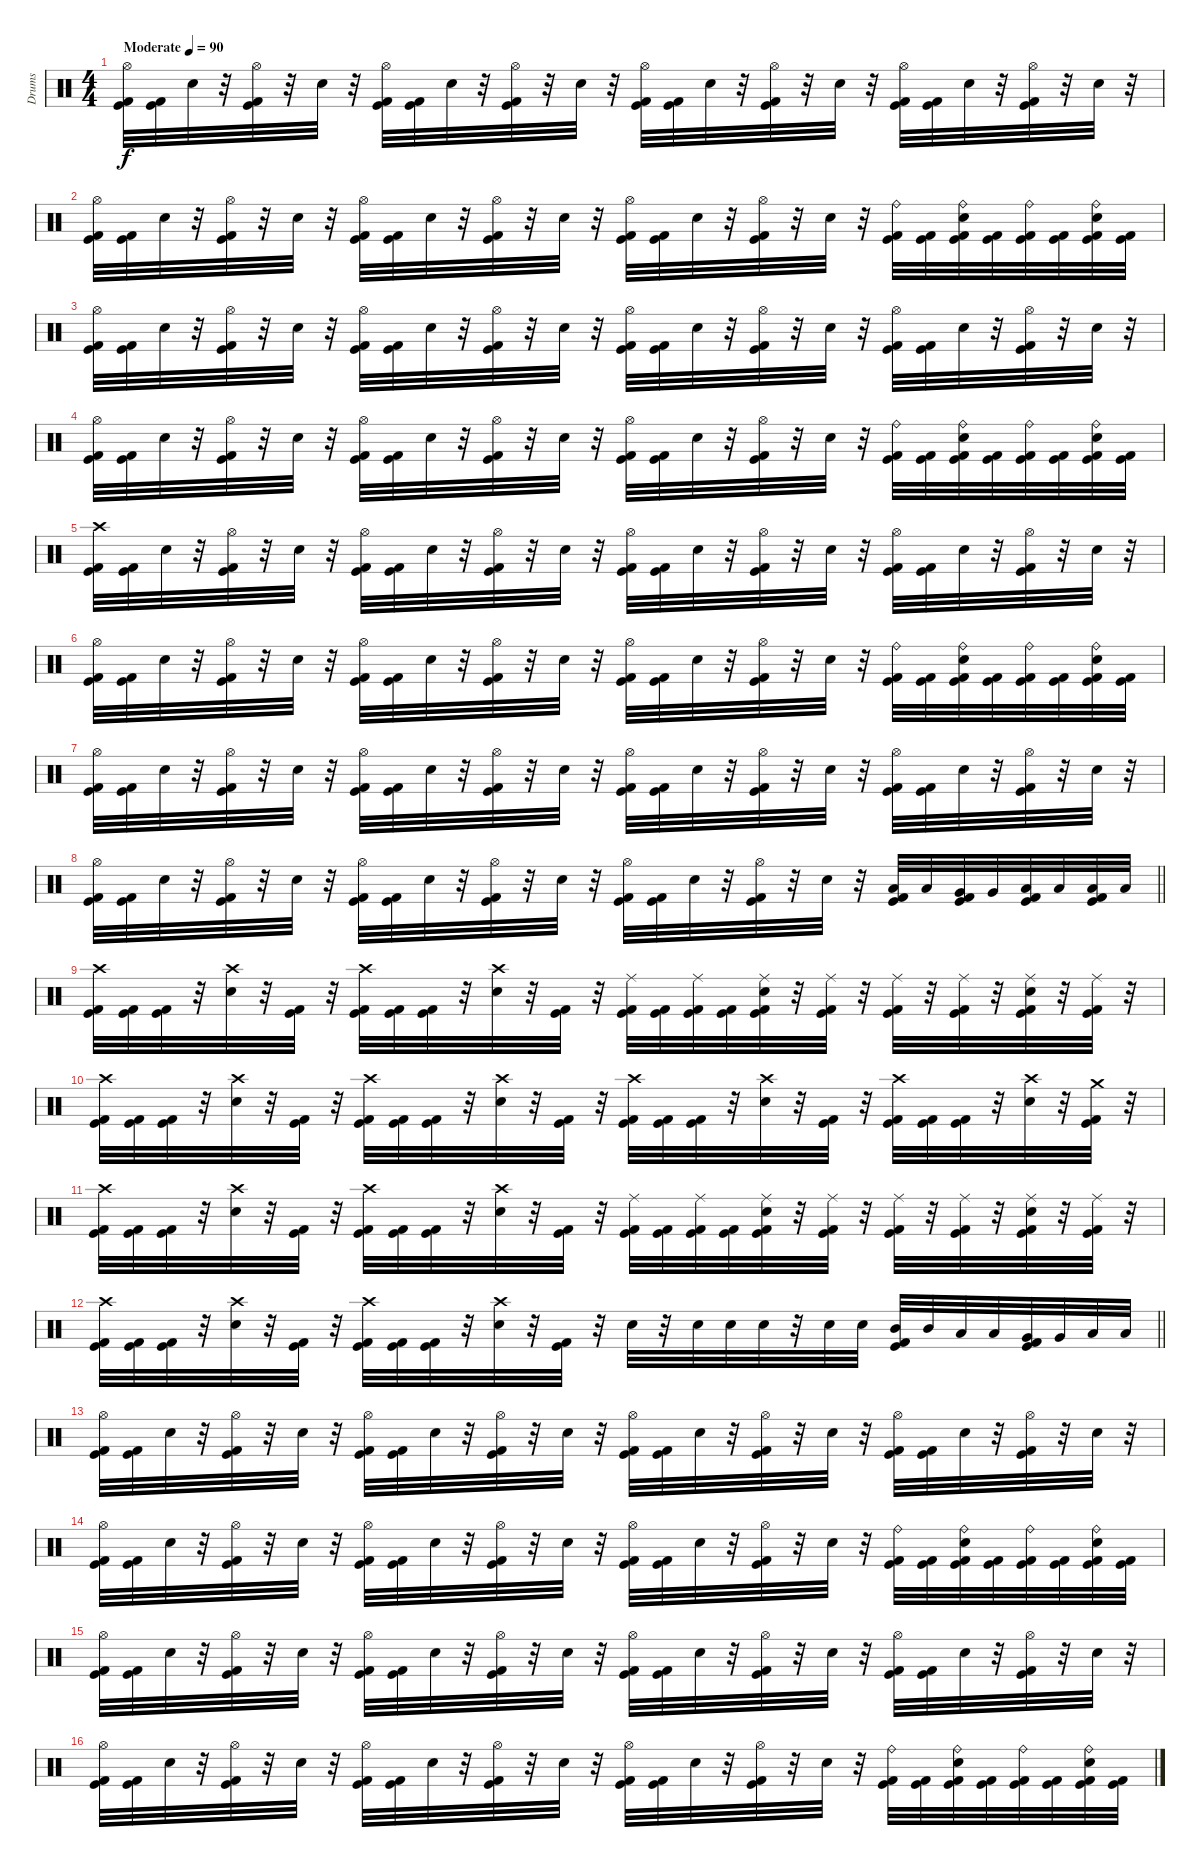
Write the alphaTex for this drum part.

\track ("Drums" "Drums") {instrument percussion}
\staff {score}
\articulation defaults
\ts (4 4)
\tempo (90 "Moderate")
\clef neutral
\ks c
("Hi-Hat (open)" "Kick (hit)" "Kick (hit) 2").32{dy f} ("Kick (hit)" "Kick (hit) 2").32 "Electric Snare (hit)".32 r.32 ("Hi-Hat (open)" "Kick (hit)" "Kick (hit) 2").32 r.32 "Electric Snare (hit)".32 r.32 ("Hi-Hat (open)" "Kick (hit)" "Kick (hit) 2").32 ("Kick (hit)" "Kick (hit) 2").32 "Electric Snare (hit)".32 r.32 ("Hi-Hat (open)" "Kick (hit)" "Kick (hit) 2").32 r.32 "Electric Snare (hit)".32 r.32 ("Hi-Hat (open)" "Kick (hit)" "Kick (hit) 2").32 ("Kick (hit)" "Kick (hit) 2").32 "Electric Snare (hit)".32 r.32 ("Hi-Hat (open)" "Kick (hit)" "Kick (hit) 2").32 r.32 "Electric Snare (hit)".32 r.32 ("Hi-Hat (open)" "Kick (hit)" "Kick (hit) 2").32 ("Kick (hit)" "Kick (hit) 2").32 "Electric Snare (hit)".32 r.32 ("Hi-Hat (open)" "Kick (hit)" "Kick (hit) 2").32 r.32 "Electric Snare (hit)".32 r.32 |
("Hi-Hat (open)" "Kick (hit)" "Kick (hit) 2").32 ("Kick (hit)" "Kick (hit) 2").32 "Electric Snare (hit)".32 r.32 ("Hi-Hat (open)" "Kick (hit)" "Kick (hit) 2").32 r.32 "Electric Snare (hit)".32 r.32 ("Hi-Hat (open)" "Kick (hit)" "Kick (hit) 2").32 ("Kick (hit)" "Kick (hit) 2").32 "Electric Snare (hit)".32 r.32 ("Hi-Hat (open)" "Kick (hit)" "Kick (hit) 2").32 r.32 "Electric Snare (hit)".32 r.32 ("Hi-Hat (open)" "Kick (hit)" "Kick (hit) 2").32 ("Kick (hit)" "Kick (hit) 2").32 "Electric Snare (hit)".32 r.32 ("Hi-Hat (open)" "Kick (hit)" "Kick (hit) 2").32 r.32 "Electric Snare (hit)".32 r.32 ("Ride (bell)" "Kick (hit)" "Kick (hit) 2").32 ("Kick (hit)" "Kick (hit) 2").32 ("Ride (bell)" "Electric Snare (hit)" "Kick (hit)" "Kick (hit) 2").32 ("Kick (hit)" "Kick (hit) 2").32 ("Ride (bell)" "Kick (hit)" "Kick (hit) 2").32 ("Kick (hit)" "Kick (hit) 2").32 ("Ride (bell)" "Electric Snare (hit)" "Kick (hit)" "Kick (hit) 2").32 ("Kick (hit)" "Kick (hit) 2").32 |
("Hi-Hat (open)" "Kick (hit)" "Kick (hit) 2").32 ("Kick (hit)" "Kick (hit) 2").32 "Electric Snare (hit)".32 r.32 ("Hi-Hat (open)" "Kick (hit)" "Kick (hit) 2").32 r.32 "Electric Snare (hit)".32 r.32 ("Hi-Hat (open)" "Kick (hit)" "Kick (hit) 2").32 ("Kick (hit)" "Kick (hit) 2").32 "Electric Snare (hit)".32 r.32 ("Hi-Hat (open)" "Kick (hit)" "Kick (hit) 2").32 r.32 "Electric Snare (hit)".32 r.32 ("Hi-Hat (open)" "Kick (hit)" "Kick (hit) 2").32 ("Kick (hit)" "Kick (hit) 2").32 "Electric Snare (hit)".32 r.32 ("Hi-Hat (open)" "Kick (hit)" "Kick (hit) 2").32 r.32 "Electric Snare (hit)".32 r.32 ("Hi-Hat (open)" "Kick (hit)" "Kick (hit) 2").32 ("Kick (hit)" "Kick (hit) 2").32 "Electric Snare (hit)".32 r.32 ("Hi-Hat (open)" "Kick (hit)" "Kick (hit) 2").32 r.32 "Electric Snare (hit)".32 r.32 |
("Hi-Hat (open)" "Kick (hit)" "Kick (hit) 2").32 ("Kick (hit)" "Kick (hit) 2").32 "Electric Snare (hit)".32 r.32 ("Hi-Hat (open)" "Kick (hit)" "Kick (hit) 2").32 r.32 "Electric Snare (hit)".32 r.32 ("Hi-Hat (open)" "Kick (hit)" "Kick (hit) 2").32 ("Kick (hit)" "Kick (hit) 2").32 "Electric Snare (hit)".32 r.32 ("Hi-Hat (open)" "Kick (hit)" "Kick (hit) 2").32 r.32 "Electric Snare (hit)".32 r.32 ("Hi-Hat (open)" "Kick (hit)" "Kick (hit) 2").32 ("Kick (hit)" "Kick (hit) 2").32 "Electric Snare (hit)".32 r.32 ("Hi-Hat (open)" "Kick (hit)" "Kick (hit) 2").32 r.32 "Electric Snare (hit)".32 r.32 ("Ride (bell)" "Kick (hit)" "Kick (hit) 2").32 ("Kick (hit)" "Kick (hit) 2").32 ("Ride (bell)" "Electric Snare (hit)" "Kick (hit)" "Kick (hit) 2").32 ("Kick (hit)" "Kick (hit) 2").32 ("Ride (bell)" "Kick (hit)" "Kick (hit) 2").32 ("Kick (hit)" "Kick (hit) 2").32 ("Ride (bell)" "Electric Snare (hit)" "Kick (hit)" "Kick (hit) 2").32 ("Kick (hit)" "Kick (hit) 2").32 |
("Crash high (hit)" "Kick (hit)" "Kick (hit) 2").32 ("Kick (hit)" "Kick (hit) 2").32 "Electric Snare (hit)".32 r.32 ("Hi-Hat (open)" "Kick (hit)" "Kick (hit) 2").32 r.32 "Electric Snare (hit)".32 r.32 ("Hi-Hat (open)" "Kick (hit)" "Kick (hit) 2").32 ("Kick (hit)" "Kick (hit) 2").32 "Electric Snare (hit)".32 r.32 ("Hi-Hat (open)" "Kick (hit)" "Kick (hit) 2").32 r.32 "Electric Snare (hit)".32 r.32 ("Hi-Hat (open)" "Kick (hit)" "Kick (hit) 2").32 ("Kick (hit)" "Kick (hit) 2").32 "Electric Snare (hit)".32 r.32 ("Hi-Hat (open)" "Kick (hit)" "Kick (hit) 2").32 r.32 "Electric Snare (hit)".32 r.32 ("Hi-Hat (open)" "Kick (hit)" "Kick (hit) 2").32 ("Kick (hit)" "Kick (hit) 2").32 "Electric Snare (hit)".32 r.32 ("Hi-Hat (open)" "Kick (hit)" "Kick (hit) 2").32 r.32 "Electric Snare (hit)".32 r.32 |
("Hi-Hat (open)" "Kick (hit)" "Kick (hit) 2").32 ("Kick (hit)" "Kick (hit) 2").32 "Electric Snare (hit)".32 r.32 ("Hi-Hat (open)" "Kick (hit)" "Kick (hit) 2").32 r.32 "Electric Snare (hit)".32 r.32 ("Hi-Hat (open)" "Kick (hit)" "Kick (hit) 2").32 ("Kick (hit)" "Kick (hit) 2").32 "Electric Snare (hit)".32 r.32 ("Hi-Hat (open)" "Kick (hit)" "Kick (hit) 2").32 r.32 "Electric Snare (hit)".32 r.32 ("Hi-Hat (open)" "Kick (hit)" "Kick (hit) 2").32 ("Kick (hit)" "Kick (hit) 2").32 "Electric Snare (hit)".32 r.32 ("Hi-Hat (open)" "Kick (hit)" "Kick (hit) 2").32 r.32 "Electric Snare (hit)".32 r.32 ("Ride (bell)" "Kick (hit)" "Kick (hit) 2").32 ("Kick (hit)" "Kick (hit) 2").32 ("Ride (bell)" "Electric Snare (hit)" "Kick (hit)" "Kick (hit) 2").32 ("Kick (hit)" "Kick (hit) 2").32 ("Ride (bell)" "Kick (hit)" "Kick (hit) 2").32 ("Kick (hit)" "Kick (hit) 2").32 ("Ride (bell)" "Electric Snare (hit)" "Kick (hit)" "Kick (hit) 2").32 ("Kick (hit)" "Kick (hit) 2").32 |
("Hi-Hat (open)" "Kick (hit)" "Kick (hit) 2").32 ("Kick (hit)" "Kick (hit) 2").32 "Electric Snare (hit)".32 r.32 ("Hi-Hat (open)" "Kick (hit)" "Kick (hit) 2").32 r.32 "Electric Snare (hit)".32 r.32 ("Hi-Hat (open)" "Kick (hit)" "Kick (hit) 2").32 ("Kick (hit)" "Kick (hit) 2").32 "Electric Snare (hit)".32 r.32 ("Hi-Hat (open)" "Kick (hit)" "Kick (hit) 2").32 r.32 "Electric Snare (hit)".32 r.32 ("Hi-Hat (open)" "Kick (hit)" "Kick (hit) 2").32 ("Kick (hit)" "Kick (hit) 2").32 "Electric Snare (hit)".32 r.32 ("Hi-Hat (open)" "Kick (hit)" "Kick (hit) 2").32 r.32 "Electric Snare (hit)".32 r.32 ("Hi-Hat (open)" "Kick (hit)" "Kick (hit) 2").32 ("Kick (hit)" "Kick (hit) 2").32 "Electric Snare (hit)".32 r.32 ("Hi-Hat (open)" "Kick (hit)" "Kick (hit) 2").32 r.32 "Electric Snare (hit)".32 r.32 |
\barLineRight lightlight
("Hi-Hat (open)" "Kick (hit)" "Kick (hit) 2").32 ("Kick (hit)" "Kick (hit) 2").32 "Electric Snare (hit)".32 r.32 ("Hi-Hat (open)" "Kick (hit)" "Kick (hit) 2").32 r.32 "Electric Snare (hit)".32 r.32 ("Hi-Hat (open)" "Kick (hit)" "Kick (hit) 2").32 ("Kick (hit)" "Kick (hit) 2").32 "Electric Snare (hit)".32 r.32 ("Hi-Hat (open)" "Kick (hit)" "Kick (hit) 2").32 r.32 "Electric Snare (hit)".32 r.32 ("Hi-Hat (open)" "Kick (hit)" "Kick (hit) 2").32 ("Kick (hit)" "Kick (hit) 2").32 "Electric Snare (hit)".32 r.32 ("Hi-Hat (open)" "Kick (hit)" "Kick (hit) 2").32 r.32 "Electric Snare (hit)".32 r.32 ("Low Tom (hit)" "Kick (hit)" "Kick (hit) 2").32 "Low Tom (hit)".32 ("Very Low Tom (hit)" "Kick (hit)" "Kick (hit) 2").32 "Very Low Tom (hit)".32 ("Low Tom (hit)" "Kick (hit)" "Kick (hit) 2").32 "Low Tom (hit)".32 ("Low Floor Tom (hit)" "Kick (hit)" "Kick (hit) 2").32 "Low Floor Tom (hit)".32 |
("Crash high (hit)" "Kick (hit)" "Kick (hit) 2").32 ("Kick (hit)" "Kick (hit) 2").32 ("Kick (hit)" "Kick (hit) 2").32 r.32 ("Crash high (hit)" "Electric Snare (hit)").32 r.32 ("Kick (hit)" "Kick (hit) 2").32 r.32 ("Crash high (hit)" "Kick (hit)" "Kick (hit) 2").32 ("Kick (hit)" "Kick (hit) 2").32 ("Kick (hit)" "Kick (hit) 2").32 r.32 ("Crash high (hit)" "Electric Snare (hit)").32 r.32 ("Kick (hit)" "Kick (hit) 2").32 r.32 ("Ride (middle)" "Kick (hit)" "Kick (hit) 2").32 ("Kick (hit)" "Kick (hit) 2").32 ("Ride (middle)" "Kick (hit)" "Kick (hit) 2").32 ("Kick (hit)" "Kick (hit) 2").32 ("Ride (middle)" "Electric Snare (hit)" "Kick (hit)" "Kick (hit) 2").32 r.32 ("Ride (middle)" "Kick (hit)" "Kick (hit) 2").32 r.32 ("Ride (middle)" "Kick (hit)" "Kick (hit) 2").32 r.32 ("Ride (middle)" "Kick (hit)" "Kick (hit) 2").32 r.32 ("Ride (middle)" "Electric Snare (hit)" "Kick (hit)" "Kick (hit) 2").32 r.32 ("Ride (middle)" "Kick (hit)" "Kick (hit) 2").32 r.32 |
("Crash high (hit)" "Kick (hit)" "Kick (hit) 2").32 ("Kick (hit)" "Kick (hit) 2").32 ("Kick (hit)" "Kick (hit) 2").32 r.32 ("Crash high (hit)" "Electric Snare (hit)").32 r.32 ("Kick (hit)" "Kick (hit) 2").32 r.32 ("Crash high (hit)" "Kick (hit)" "Kick (hit) 2").32 ("Kick (hit)" "Kick (hit) 2").32 ("Kick (hit)" "Kick (hit) 2").32 r.32 ("Crash high (hit)" "Electric Snare (hit)").32 r.32 ("Kick (hit)" "Kick (hit) 2").32 r.32 ("Crash high (hit)" "Kick (hit)" "Kick (hit) 2").32 ("Kick (hit)" "Kick (hit) 2").32 ("Kick (hit)" "Kick (hit) 2").32 r.32 ("Crash high (hit)" "Electric Snare (hit)").32 r.32 ("Kick (hit)" "Kick (hit) 2").32 r.32 ("Crash high (hit)" "Kick (hit)" "Kick (hit) 2").32 ("Kick (hit)" "Kick (hit) 2").32 ("Kick (hit)" "Kick (hit) 2").32 r.32 ("Crash high (hit)" "Electric Snare (hit)").32 r.32 ("Crash medium (hit)" "Kick (hit)" "Kick (hit) 2").32 r.32 |
("Crash high (hit)" "Kick (hit)" "Kick (hit) 2").32 ("Kick (hit)" "Kick (hit) 2").32 ("Kick (hit)" "Kick (hit) 2").32 r.32 ("Crash high (hit)" "Electric Snare (hit)").32 r.32 ("Kick (hit)" "Kick (hit) 2").32 r.32 ("Crash high (hit)" "Kick (hit)" "Kick (hit) 2").32 ("Kick (hit)" "Kick (hit) 2").32 ("Kick (hit)" "Kick (hit) 2").32 r.32 ("Crash high (hit)" "Electric Snare (hit)").32 r.32 ("Kick (hit)" "Kick (hit) 2").32 r.32 ("Ride (middle)" "Kick (hit)" "Kick (hit) 2").32 ("Kick (hit)" "Kick (hit) 2").32 ("Ride (middle)" "Kick (hit)" "Kick (hit) 2").32 ("Kick (hit)" "Kick (hit) 2").32 ("Ride (middle)" "Electric Snare (hit)" "Kick (hit)" "Kick (hit) 2").32 r.32 ("Ride (middle)" "Kick (hit)" "Kick (hit) 2").32 r.32 ("Ride (middle)" "Kick (hit)" "Kick (hit) 2").32 r.32 ("Ride (middle)" "Kick (hit)" "Kick (hit) 2").32 r.32 ("Ride (middle)" "Electric Snare (hit)" "Kick (hit)" "Kick (hit) 2").32 r.32 ("Ride (middle)" "Kick (hit)" "Kick (hit) 2").32 r.32 |
\barLineRight lightlight
("Crash high (hit)" "Kick (hit)" "Kick (hit) 2").32 ("Kick (hit)" "Kick (hit) 2").32 ("Kick (hit)" "Kick (hit) 2").32 r.32 ("Crash high (hit)" "Electric Snare (hit)").32 r.32 ("Kick (hit)" "Kick (hit) 2").32 r.32 ("Crash high (hit)" "Kick (hit)" "Kick (hit) 2").32 ("Kick (hit)" "Kick (hit) 2").32 ("Kick (hit)" "Kick (hit) 2").32 r.32 ("Crash high (hit)" "Electric Snare (hit)").32 r.32 ("Kick (hit)" "Kick (hit) 2").32 r.32 "Electric Snare (hit)".32 r.32 "Electric Snare (hit)".32 "Electric Snare (hit)".32 "Electric Snare (hit)".32 r.32 "Electric Snare (hit)".32 "Electric Snare (hit)".32 ("Mid Tom (hit)" "Kick (hit)" "Kick (hit) 2").32 "Mid Tom (hit)".32 "Low Tom (hit)".32 "Low Tom (hit)".32 ("Very Low Tom (hit)" "Kick (hit)" "Kick (hit) 2").32 "Very Low Tom (hit)".32 "Low Floor Tom (hit)".32 "Low Floor Tom (hit)".32 |
("Hi-Hat (open)" "Kick (hit)" "Kick (hit) 2").32 ("Kick (hit)" "Kick (hit) 2").32 "Electric Snare (hit)".32 r.32 ("Hi-Hat (open)" "Kick (hit)" "Kick (hit) 2").32 r.32 "Electric Snare (hit)".32 r.32 ("Hi-Hat (open)" "Kick (hit)" "Kick (hit) 2").32 ("Kick (hit)" "Kick (hit) 2").32 "Electric Snare (hit)".32 r.32 ("Hi-Hat (open)" "Kick (hit)" "Kick (hit) 2").32 r.32 "Electric Snare (hit)".32 r.32 ("Hi-Hat (open)" "Kick (hit)" "Kick (hit) 2").32 ("Kick (hit)" "Kick (hit) 2").32 "Electric Snare (hit)".32 r.32 ("Hi-Hat (open)" "Kick (hit)" "Kick (hit) 2").32 r.32 "Electric Snare (hit)".32 r.32 ("Hi-Hat (open)" "Kick (hit)" "Kick (hit) 2").32 ("Kick (hit)" "Kick (hit) 2").32 "Electric Snare (hit)".32 r.32 ("Hi-Hat (open)" "Kick (hit)" "Kick (hit) 2").32 r.32 "Electric Snare (hit)".32 r.32 |
("Hi-Hat (open)" "Kick (hit)" "Kick (hit) 2").32 ("Kick (hit)" "Kick (hit) 2").32 "Electric Snare (hit)".32 r.32 ("Hi-Hat (open)" "Kick (hit)" "Kick (hit) 2").32 r.32 "Electric Snare (hit)".32 r.32 ("Hi-Hat (open)" "Kick (hit)" "Kick (hit) 2").32 ("Kick (hit)" "Kick (hit) 2").32 "Electric Snare (hit)".32 r.32 ("Hi-Hat (open)" "Kick (hit)" "Kick (hit) 2").32 r.32 "Electric Snare (hit)".32 r.32 ("Hi-Hat (open)" "Kick (hit)" "Kick (hit) 2").32 ("Kick (hit)" "Kick (hit) 2").32 "Electric Snare (hit)".32 r.32 ("Hi-Hat (open)" "Kick (hit)" "Kick (hit) 2").32 r.32 "Electric Snare (hit)".32 r.32 ("Ride (bell)" "Kick (hit)" "Kick (hit) 2").32 ("Kick (hit)" "Kick (hit) 2").32 ("Ride (bell)" "Electric Snare (hit)" "Kick (hit)" "Kick (hit) 2").32 ("Kick (hit)" "Kick (hit) 2").32 ("Ride (bell)" "Kick (hit)" "Kick (hit) 2").32 ("Kick (hit)" "Kick (hit) 2").32 ("Ride (bell)" "Electric Snare (hit)" "Kick (hit)" "Kick (hit) 2").32 ("Kick (hit)" "Kick (hit) 2").32 |
("Hi-Hat (open)" "Kick (hit)" "Kick (hit) 2").32 ("Kick (hit)" "Kick (hit) 2").32 "Electric Snare (hit)".32 r.32 ("Hi-Hat (open)" "Kick (hit)" "Kick (hit) 2").32 r.32 "Electric Snare (hit)".32 r.32 ("Hi-Hat (open)" "Kick (hit)" "Kick (hit) 2").32 ("Kick (hit)" "Kick (hit) 2").32 "Electric Snare (hit)".32 r.32 ("Hi-Hat (open)" "Kick (hit)" "Kick (hit) 2").32 r.32 "Electric Snare (hit)".32 r.32 ("Hi-Hat (open)" "Kick (hit)" "Kick (hit) 2").32 ("Kick (hit)" "Kick (hit) 2").32 "Electric Snare (hit)".32 r.32 ("Hi-Hat (open)" "Kick (hit)" "Kick (hit) 2").32 r.32 "Electric Snare (hit)".32 r.32 ("Hi-Hat (open)" "Kick (hit)" "Kick (hit) 2").32 ("Kick (hit)" "Kick (hit) 2").32 "Electric Snare (hit)".32 r.32 ("Hi-Hat (open)" "Kick (hit)" "Kick (hit) 2").32 r.32 "Electric Snare (hit)".32 r.32 |
("Hi-Hat (open)" "Kick (hit)" "Kick (hit) 2").32 ("Kick (hit)" "Kick (hit) 2").32 "Electric Snare (hit)".32 r.32 ("Hi-Hat (open)" "Kick (hit)" "Kick (hit) 2").32 r.32 "Electric Snare (hit)".32 r.32 ("Hi-Hat (open)" "Kick (hit)" "Kick (hit) 2").32 ("Kick (hit)" "Kick (hit) 2").32 "Electric Snare (hit)".32 r.32 ("Hi-Hat (open)" "Kick (hit)" "Kick (hit) 2").32 r.32 "Electric Snare (hit)".32 r.32 ("Hi-Hat (open)" "Kick (hit)" "Kick (hit) 2").32 ("Kick (hit)" "Kick (hit) 2").32 "Electric Snare (hit)".32 r.32 ("Hi-Hat (open)" "Kick (hit)" "Kick (hit) 2").32 r.32 "Electric Snare (hit)".32 r.32 ("Ride (bell)" "Kick (hit)" "Kick (hit) 2").32 ("Kick (hit)" "Kick (hit) 2").32 ("Ride (bell)" "Electric Snare (hit)" "Kick (hit)" "Kick (hit) 2").32 ("Kick (hit)" "Kick (hit) 2").32 ("Ride (bell)" "Kick (hit)" "Kick (hit) 2").32 ("Kick (hit)" "Kick (hit) 2").32 ("Ride (bell)" "Electric Snare (hit)" "Kick (hit)" "Kick (hit) 2").32 ("Kick (hit)" "Kick (hit) 2").32
